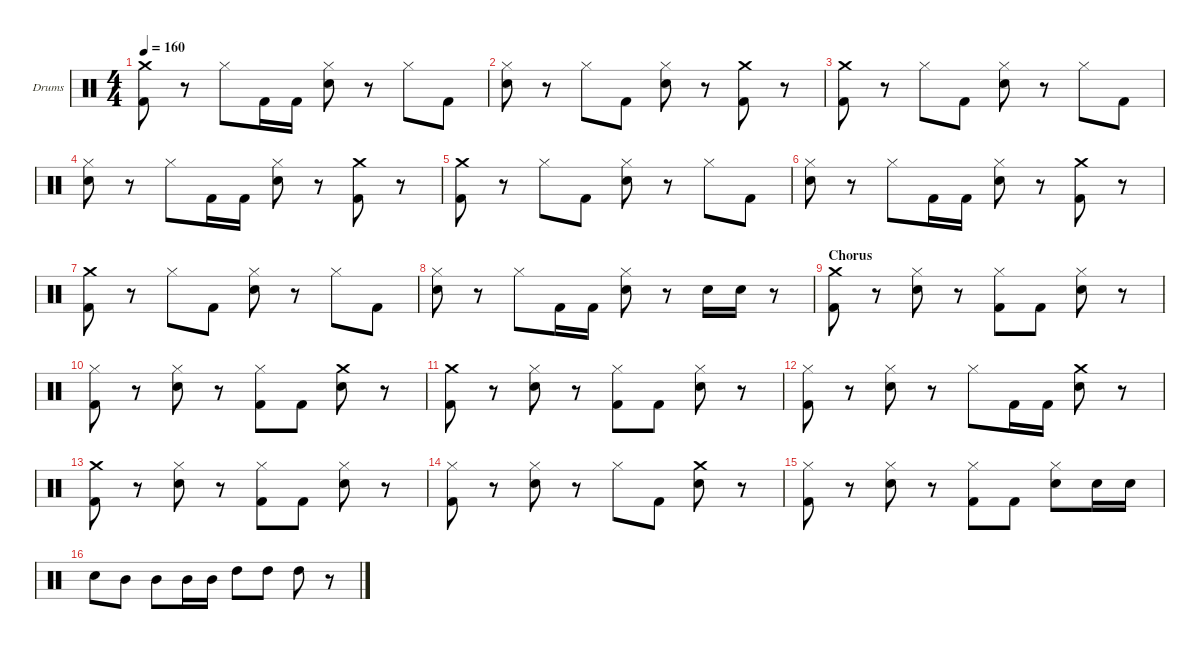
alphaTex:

\hideDynamics
\bracketExtendMode nobrackets
\firstSystemTrackNameOrientation horizontal
\otherSystemsTrackNameOrientation horizontal
\track ("Drumkit" "Drums") {instrument percussion}
\staff {score}
\articulation defaults
\ts (4 4)
\tempo 160
\clef neutral
\ks c
("Kick (hit) 2" "Crash medium (hit)").8{dy f} r.8 "Hi-Hat (closed)".8 "Kick (hit) 2".16 "Kick (hit) 2".16 ("Hi-Hat (closed)" "Snare (hit) 2").8 r.8 "Hi-Hat (closed)".8 "Kick (hit) 2".8 |
("Hi-Hat (closed)" "Snare (hit) 2").8 r.8 "Hi-Hat (closed)".8 "Kick (hit) 2".8 ("Snare (hit) 2" "Hi-Hat (closed)").8 r.8 ("Crash medium (hit)" "Kick (hit) 2").8 r.8 |
("Kick (hit) 2" "Crash medium (hit)").8 r.8 "Hi-Hat (closed)".8 "Kick (hit) 2".8 ("Snare (hit) 2" "Hi-Hat (closed)").8 r.8 "Hi-Hat (closed)".8 "Kick (hit) 2".8 |
("Hi-Hat (closed)" "Snare (hit) 2").8 r.8 "Hi-Hat (closed)".8 "Kick (hit) 2".16 "Kick (hit) 2".16 ("Snare (hit) 2" "Hi-Hat (closed)").8 r.8 ("Crash medium (hit)" "Kick (hit) 2").8 r.8 |
("Kick (hit) 2" "Crash medium (hit)").8 r.8 "Hi-Hat (closed)".8 "Kick (hit) 2".8 ("Snare (hit) 2" "Hi-Hat (closed)").8 r.8 "Hi-Hat (closed)".8 "Kick (hit) 2".8 |
("Hi-Hat (closed)" "Snare (hit) 2").8 r.8 "Hi-Hat (closed)".8 "Kick (hit) 2".16 "Kick (hit) 2".16 ("Snare (hit) 2" "Hi-Hat (closed)").8 r.8 ("Crash medium (hit)" "Kick (hit) 2").8 r.8 |
("Kick (hit) 2" "Crash medium (hit)").8 r.8 "Hi-Hat (closed)".8 "Kick (hit) 2".8 ("Snare (hit) 2" "Hi-Hat (closed)").8 r.8 "Hi-Hat (closed)".8 "Kick (hit) 2".8 |
("Hi-Hat (closed)" "Snare (hit) 2").8 r.8 "Hi-Hat (closed)".8 "Kick (hit) 2".16 "Kick (hit) 2".16 ("Snare (hit) 2" "Hi-Hat (closed)").8 r.8 "Snare (hit) 2".16 "Snare (hit) 2".16 r.8 |
\section ("" "Chorus")
("Kick (hit) 2" "Crash medium (hit)").8 r.8 ("Hi-Hat (closed)" "Snare (hit) 2").8 r.8 ("Hi-Hat (closed)" "Kick (hit) 2").8 "Kick (hit) 2".8 ("Snare (hit) 2" "Hi-Hat (closed)").8 r.8 |
("Kick (hit) 2" "Hi-Hat (closed)").8 r.8 ("Snare (hit) 2" "Hi-Hat (closed)").8 r.8 ("Kick (hit) 2" "Hi-Hat (closed)").8 "Kick (hit) 2".8 ("Crash medium (hit)" "Snare (hit) 2").8 r.8 |
("Kick (hit) 2" "Crash medium (hit)").8 r.8 ("Hi-Hat (closed)" "Snare (hit) 2").8 r.8 ("Kick (hit) 2" "Hi-Hat (closed)").8 "Kick (hit) 2".8 ("Hi-Hat (closed)" "Snare (hit) 2").8 r.8 |
("Kick (hit) 2" "Hi-Hat (closed)").8 r.8 ("Snare (hit) 2" "Hi-Hat (closed)").8 r.8 "Hi-Hat (closed)".8 "Kick (hit) 2".16 "Kick (hit) 2".16 ("Crash medium (hit)" "Snare (hit) 2").8 r.8 |
("Kick (hit) 2" "Crash medium (hit)").8 r.8 ("Hi-Hat (closed)" "Snare (hit) 2").8 r.8 ("Hi-Hat (closed)" "Kick (hit) 2").8 "Kick (hit) 2".8 ("Snare (hit) 2" "Hi-Hat (closed)").8 r.8 |
("Kick (hit) 2" "Hi-Hat (closed)").8 r.8 ("Snare (hit) 2" "Hi-Hat (closed)").8 r.8 "Hi-Hat (closed)".8 "Kick (hit) 2".8 ("Crash medium (hit)" "Snare (hit) 2").8 r.8 |
("Kick (hit) 2" "Hi-Hat (closed)").8 r.8 ("Snare (hit) 2" "Hi-Hat (closed)").8 r.8 ("Kick (hit) 2" "Hi-Hat (closed)").8 "Kick (hit) 2".8 ("Snare (hit) 2" "Hi-Hat (closed)").8 "Snare (hit) 2".16 "Snare (hit) 2".16 |
"Snare (hit) 2".8 "Mid Tom (hit)".8 "Mid Tom (hit)".8 "Mid Tom (hit)".16 "Mid Tom (hit)".16 "High Tom (hit)".8 "High Tom (hit)".8 "High Tom (hit)".8 r.8
